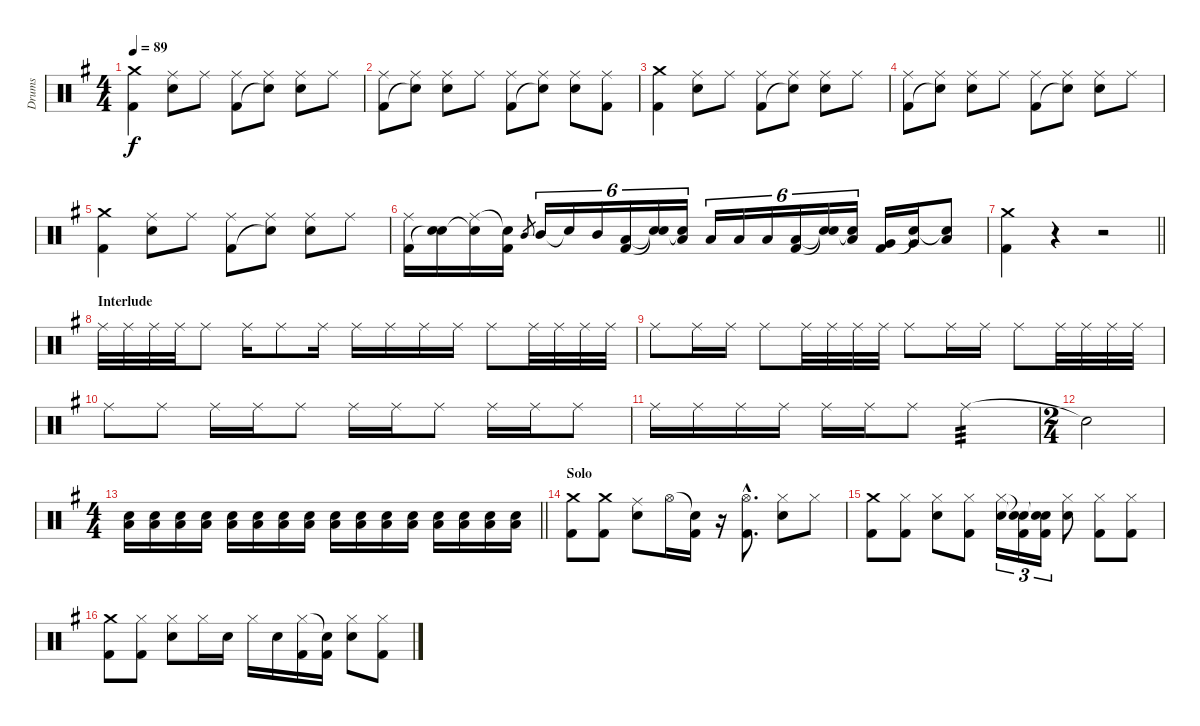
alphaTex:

\track ("Drums" "Drums") {instrument percussion}
\staff {score}
\articulation defaults
\ts (4 4)
\tempo 89
\clef neutral
\ks g
("Crash medium (hit)" "Kick (hit) 2").4{dy f} ("Ride (middle)" "Electric Snare (hit)").8 "Ride (middle)".8 ("Ride (middle)" "Kick (hit) 2").8 ("Ride (middle)" "Snare (hit)"{t}).8 ("Ride (middle)" "Electric Snare (hit)").8 "Ride (middle)".8 |
("Ride (middle)" "Kick (hit) 2").8 ("Ride (middle)" "Snare (hit)"{t}).8 ("Ride (middle)" "Electric Snare (hit)").8 "Ride (middle)".8 ("Ride (middle)" "Kick (hit) 2").8 ("Ride (middle)" "Snare (hit)"{t}).8 ("Ride (middle)" "Electric Snare (hit)").8 ("Ride (middle)" "Kick (hit) 2").8 |
("Crash medium (hit)" "Kick (hit) 2").4 ("Ride (middle)" "Electric Snare (hit)").8 "Ride (middle)".8 ("Ride (middle)" "Kick (hit) 2").8 ("Ride (middle)" "Snare (hit)"{t}).8 ("Ride (middle)" "Electric Snare (hit)").8 "Ride (middle)".8 |
("Ride (middle)" "Kick (hit) 2").8 ("Ride (middle)" "Snare (hit)"{t}).8 ("Ride (middle)" "Electric Snare (hit)").8 "Ride (middle)".8 ("Ride (middle)" "Kick (hit) 2").8 ("Ride (middle)" "Snare (hit)"{t}).8 ("Ride (middle)" "Electric Snare (hit)").8 "Ride (middle)".8 |
("Crash medium (hit)" "Kick (hit) 2").4 ("Ride (middle)" "Electric Snare (hit)").8 "Ride (middle)".8 ("Ride (middle)" "Kick (hit) 2").8 ("Ride (middle)" "Snare (hit)"{t}).8 ("Ride (middle)" "Electric Snare (hit)").8 "Ride (middle)".8 |
("Ride (middle)" "Kick (hit) 2").16 ("Electric Snare (hit)" "Snare (hit)"{t}).16 ("Ride (middle)" "Snare (hit)"{t}).16 ("Snare (hit)"{t} "Kick (hit) 2").16 "Mid Tom (hit)".8{gr} "Mid Tom (hit)".16{tu (6 4)} "Snare (hit)"{t}.16{tu (6 4)} "Mid Tom (hit)".16{tu (6 4)} ("Low Tom (hit)" "Kick (hit) 2").16{tu (6 4)} ("Snare (hit)"{t} "Snare (hit)"{t}).16{tu (6 4)} ("Low Tom (hit)" "Snare (hit)"{t}).16{tu (6 4)} "Low Tom (hit)".16{tu (6 4)} "Low Tom (hit)".16{tu (6 4)} "Low Tom (hit)".16{tu (6 4)} ("Low Tom (hit)" "Kick (hit) 2").16{tu (6 4)} ("Snare (hit)"{t} "Snare (hit)"{t}).16{tu (6 4)} ("Low Tom (hit)" "Snare (hit)"{t}).16{tu (6 4)} ("Very Low Tom (hit)" "Kick (hit) 2").16 ("Very Low Tom (hit)" "Snare (hit)"{t}).16 ("Low Floor Tom (hit)" "Snare (hit)"{t}).8 |
\barLineRight lightlight
("Crash medium (hit)" "Kick (hit) 2").4 r.4 r.2 |
\section ("" "Interlude")
"Ride (middle)".32 "Ride (middle)".32 "Ride (middle)".32 "Ride (middle)".32 "Ride (middle)".8 "Ride (middle)".16 "Ride (middle)".8 "Ride (middle)".16 "Ride (middle)".16 "Ride (middle)".16 "Ride (middle)".16 "Ride (middle)".16 "Ride (middle)".8 "Ride (middle)".32 "Ride (middle)".32 "Ride (middle)".32 "Ride (middle)".32 |
"Ride (middle)".8 "Ride (middle)".16 "Ride (middle)".16 "Ride (middle)".8 "Ride (middle)".32 "Ride (middle)".32 "Ride (middle)".32 "Ride (middle)".32 "Ride (middle)".8 "Ride (middle)".16 "Ride (middle)".16 "Ride (middle)".8 "Ride (middle)".32 "Ride (middle)".32 "Ride (middle)".32 "Ride (middle)".32 |
"Ride (middle)".8 "Ride (middle)".8 "Ride (middle)".16 "Ride (middle)".16 "Ride (middle)".8 "Ride (middle)".16 "Ride (middle)".16 "Ride (middle)".8 "Ride (middle)".16 "Ride (middle)".16 "Ride (middle)".8 |
"Ride (middle)".16 "Ride (middle)".16 "Ride (middle)".16 "Ride (middle)".16 "Ride (middle)".16 "Ride (middle)".16 "Ride (middle)".8 "Ride (middle)".2{tp 3} |
\ts (2 4)
"Snare (hit)"{t}.2 |
\ts (4 4)
\barLineRight lightlight
("Electric Snare (hit)" "Low Floor Tom (hit)").16 ("Electric Snare (hit)" "Low Floor Tom (hit)").16 ("Electric Snare (hit)" "Low Floor Tom (hit)").16 ("Electric Snare (hit)" "Low Floor Tom (hit)").16 ("Electric Snare (hit)" "Low Floor Tom (hit)").16 ("Electric Snare (hit)" "Low Floor Tom (hit)").16 ("Electric Snare (hit)" "Low Floor Tom (hit)").16 ("Electric Snare (hit)" "Low Floor Tom (hit)").16 ("Electric Snare (hit)" "Low Floor Tom (hit)").16 ("Electric Snare (hit)" "Low Floor Tom (hit)").16 ("Electric Snare (hit)" "Low Floor Tom (hit)").16 ("Electric Snare (hit)" "Low Floor Tom (hit)").16 ("Electric Snare (hit)" "Low Floor Tom (hit)").16 ("Electric Snare (hit)" "Low Floor Tom (hit)").16 ("Electric Snare (hit)" "Low Floor Tom (hit)").16 ("Electric Snare (hit)" "Low Floor Tom (hit)").16 |
\section ("" "Solo")
("Crash medium (hit)" "Kick (hit) 2").8 ("Crash medium (hit)" "Kick (hit) 2").8 ("Ride (middle)" "Electric Snare (hit)").8 "Hi-Hat (open)".16 ("Snare (hit)"{t} "Kick (hit) 2").16 r.16 ("Hi-Hat (open)"{hac} "Kick (hit) 2"{hac}).8{d} ("Hi-Hat (closed)" "Electric Snare (hit)").8 "Hi-Hat (closed)".8 |
("Crash medium (hit)" "Kick (hit) 2").8 ("Hi-Hat (closed)" "Kick (hit) 2").8 ("Hi-Hat (closed)" "Electric Snare (hit)").8 ("Hi-Hat (closed)" "Kick (hit) 2").8 ("Hi-Hat (closed)" "Electric Snare (hit)").16{tu (3 2)} ("Snare (hit)"{t} "Snare (hit)"{t} "Kick (hit) 2").16{tu (3 2)} ("Snare (hit)"{t} "Snare (hit)"{t} "Kick (hit) 2").16{tu (3 2)} ("Hi-Hat (closed)" "Electric Snare (hit)").8 ("Hi-Hat (closed)" "Kick (hit) 2").8 ("Hi-Hat (closed)" "Kick (hit) 2").8 |
("Crash medium (hit)" "Kick (hit) 2").8 ("Hi-Hat (closed)" "Kick (hit) 2").8 ("Hi-Hat (closed)" "Electric Snare (hit)").8 "Hi-Hat (closed)".16 "Electric Snare (hit)".16 "Hi-Hat (closed)".16 "Electric Snare (hit)".16 ("Hi-Hat (closed)" "Kick (hit) 2").16 ("Snare (hit)"{t} "Kick (hit) 2").16 ("Hi-Hat (closed)" "Electric Snare (hit)").8 ("Hi-Hat (closed)" "Kick (hit) 2").8
